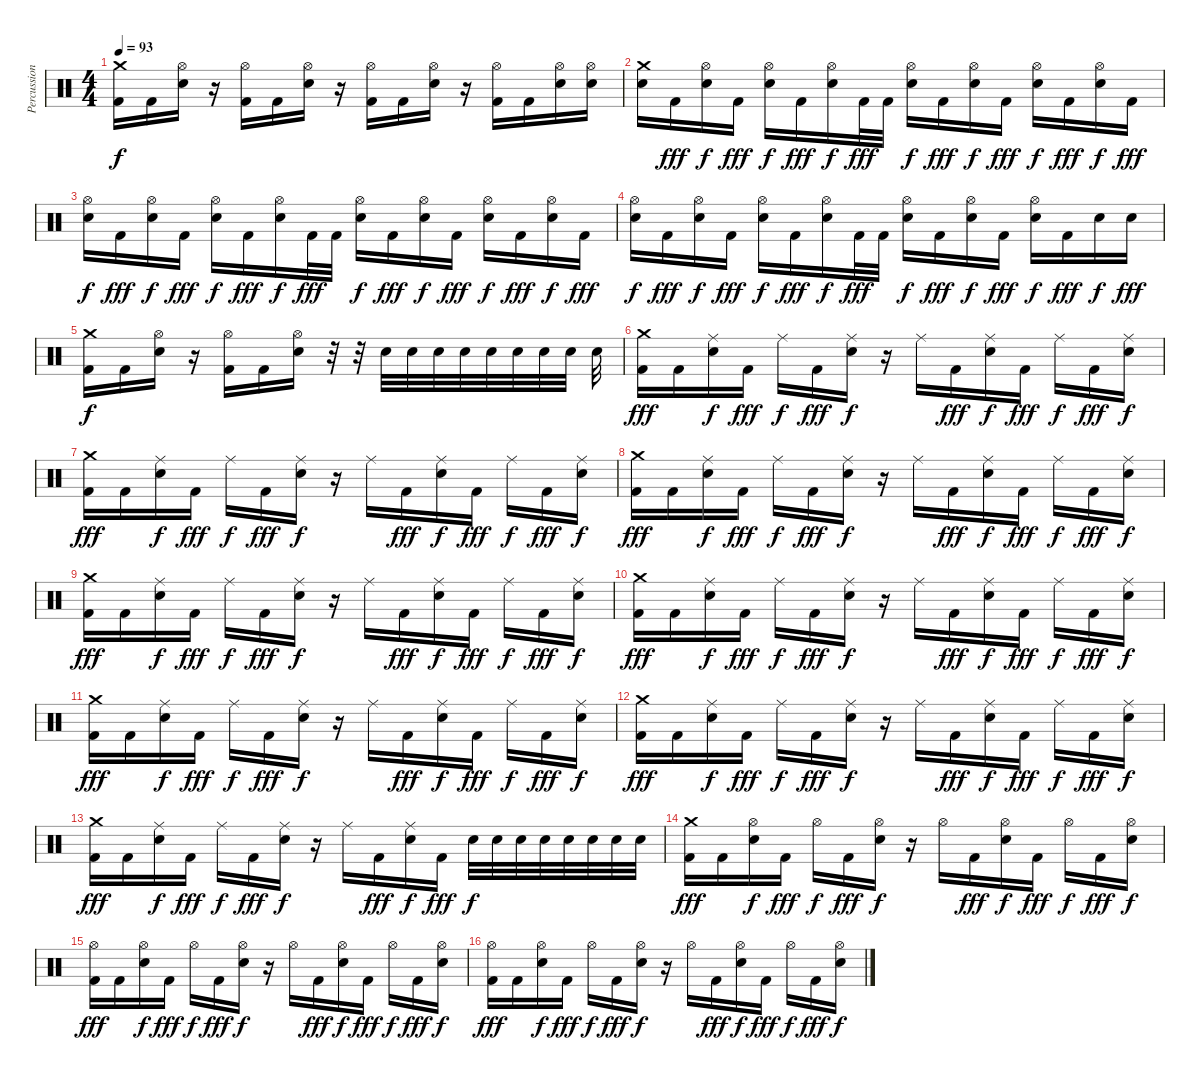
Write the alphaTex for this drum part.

\track ("Percussion" "Percussion") {instrument percussion}
\staff {score}
\articulation defaults
\ts (4 4)
\tempo 93
\clef neutral
\ks c
("Crash medium (hit)" "Kick (hit) 2").16{dy f} "Kick (hit) 2".16 ("Hi-Hat (open)" "Snare (hit) 2").16 r.16 ("Hi-Hat (open)" "Kick (hit) 2").16 "Kick (hit) 2".16 ("Hi-Hat (open)" "Snare (hit) 2").16 r.16 ("Hi-Hat (open)" "Kick (hit) 2").16 "Kick (hit) 2".16 ("Hi-Hat (open)" "Snare (hit) 2").16 r.16 ("Hi-Hat (open)" "Kick (hit) 2").16 "Kick (hit) 2".16 ("Hi-Hat (open)" "Snare (hit) 2").16 ("Hi-Hat (open)" "Snare (hit) 2").16 |
("Crash medium (hit)" "Snare (hit) 2").16 "Kick (hit) 2".16{dy fff} ("Hi-Hat (open)" "Snare (hit) 2").16{dy f} "Kick (hit) 2".16{dy fff} ("Hi-Hat (open)" "Snare (hit) 2").16{dy f} "Kick (hit) 2".16{dy fff} ("Hi-Hat (open)" "Snare (hit) 2").16{dy f} "Kick (hit) 2".32{dy fff} "Kick (hit) 2".32 ("Hi-Hat (open)" "Snare (hit) 2").16{dy f} "Kick (hit) 2".16{dy fff} ("Hi-Hat (open)" "Snare (hit) 2").16{dy f} "Kick (hit) 2".16{dy fff} ("Hi-Hat (open)" "Snare (hit) 2").16{dy f} "Kick (hit) 2".16{dy fff} ("Hi-Hat (open)" "Snare (hit) 2").16{dy f} "Kick (hit) 2".16{dy fff} |
("Hi-Hat (open)" "Snare (hit) 2").16{dy f} "Kick (hit) 2".16{dy fff} ("Hi-Hat (open)" "Snare (hit) 2").16{dy f} "Kick (hit) 2".16{dy fff} ("Hi-Hat (open)" "Snare (hit) 2").16{dy f} "Kick (hit) 2".16{dy fff} ("Hi-Hat (open)" "Snare (hit) 2").16{dy f} "Kick (hit) 2".32{dy fff} "Kick (hit) 2".32 ("Hi-Hat (open)" "Snare (hit) 2").16{dy f} "Kick (hit) 2".16{dy fff} ("Hi-Hat (open)" "Snare (hit) 2").16{dy f} "Kick (hit) 2".16{dy fff} ("Hi-Hat (open)" "Snare (hit) 2").16{dy f} "Kick (hit) 2".16{dy fff} ("Hi-Hat (open)" "Snare (hit) 2").16{dy f} "Kick (hit) 2".16{dy fff} |
("Hi-Hat (open)" "Snare (hit) 2").16{dy f} "Kick (hit) 2".16{dy fff} ("Hi-Hat (open)" "Snare (hit) 2").16{dy f} "Kick (hit) 2".16{dy fff} ("Hi-Hat (open)" "Snare (hit) 2").16{dy f} "Kick (hit) 2".16{dy fff} ("Hi-Hat (open)" "Snare (hit) 2").16{dy f} "Kick (hit) 2".32{dy fff} "Kick (hit) 2".32 ("Hi-Hat (open)" "Snare (hit) 2").16{dy f} "Kick (hit) 2".16{dy fff} ("Hi-Hat (open)" "Snare (hit) 2").16{dy f} "Kick (hit) 2".16{dy fff} ("Hi-Hat (open)" "Snare (hit) 2").16{dy f} "Kick (hit) 2".16{dy fff} "Snare (hit) 2".16{dy f} "Snare (hit) 2".16{dy fff} |
("Crash medium (hit)" "Kick (hit) 2").16{dy f} "Kick (hit) 2".16 ("Hi-Hat (open)" "Snare (hit) 2").16 r.16 ("Hi-Hat (open)" "Kick (hit) 2").16 "Kick (hit) 2".16 ("Hi-Hat (open)" "Snare (hit) 2").16 r.32 r.32 "Snare (hit) 2".32 "Snare (hit) 2".32 "Snare (hit) 2".32 "Snare (hit) 2".32 "Snare (hit) 2".32 "Snare (hit) 2".32 "Snare (hit) 2".32 "Snare (hit) 2".32 "Snare (hit) 2".32 |
("Crash medium (hit)" "Kick (hit) 2").16{dy fff} "Kick (hit) 2".16 ("Ride (middle)" "Snare (hit) 2").16{dy f} "Kick (hit) 2".16{dy fff} "Ride (middle)".16{dy f} "Kick (hit) 2".16{dy fff} ("Ride (middle)" "Snare (hit) 2").16{dy f} r.16 "Ride (middle)".16 "Kick (hit) 2".16{dy fff} ("Ride (middle)" "Snare (hit) 2").16{dy f} "Kick (hit) 2".16{dy fff} "Ride (middle)".16{dy f} "Kick (hit) 2".16{dy fff} ("Ride (middle)" "Snare (hit) 2").16{dy f} |
("Crash medium (hit)" "Kick (hit) 2").16{dy fff} "Kick (hit) 2".16 ("Ride (middle)" "Snare (hit) 2").16{dy f} "Kick (hit) 2".16{dy fff} "Ride (middle)".16{dy f} "Kick (hit) 2".16{dy fff} ("Ride (middle)" "Snare (hit) 2").16{dy f} r.16 "Ride (middle)".16 "Kick (hit) 2".16{dy fff} ("Ride (middle)" "Snare (hit) 2").16{dy f} "Kick (hit) 2".16{dy fff} "Ride (middle)".16{dy f} "Kick (hit) 2".16{dy fff} ("Ride (middle)" "Snare (hit) 2").16{dy f} |
("Crash medium (hit)" "Kick (hit) 2").16{dy fff} "Kick (hit) 2".16 ("Ride (middle)" "Snare (hit) 2").16{dy f} "Kick (hit) 2".16{dy fff} "Ride (middle)".16{dy f} "Kick (hit) 2".16{dy fff} ("Ride (middle)" "Snare (hit) 2").16{dy f} r.16 "Ride (middle)".16 "Kick (hit) 2".16{dy fff} ("Ride (middle)" "Snare (hit) 2").16{dy f} "Kick (hit) 2".16{dy fff} "Ride (middle)".16{dy f} "Kick (hit) 2".16{dy fff} ("Ride (middle)" "Snare (hit) 2").16{dy f} |
("Crash medium (hit)" "Kick (hit) 2").16{dy fff} "Kick (hit) 2".16 ("Ride (middle)" "Snare (hit) 2").16{dy f} "Kick (hit) 2".16{dy fff} "Ride (middle)".16{dy f} "Kick (hit) 2".16{dy fff} ("Ride (middle)" "Snare (hit) 2").16{dy f} r.16 "Ride (middle)".16 "Kick (hit) 2".16{dy fff} ("Ride (middle)" "Snare (hit) 2").16{dy f} "Kick (hit) 2".16{dy fff} "Ride (middle)".16{dy f} "Kick (hit) 2".16{dy fff} ("Ride (middle)" "Snare (hit) 2").16{dy f} |
("Crash medium (hit)" "Kick (hit) 2").16{dy fff} "Kick (hit) 2".16 ("Ride (middle)" "Snare (hit) 2").16{dy f} "Kick (hit) 2".16{dy fff} "Ride (middle)".16{dy f} "Kick (hit) 2".16{dy fff} ("Ride (middle)" "Snare (hit) 2").16{dy f} r.16 "Ride (middle)".16 "Kick (hit) 2".16{dy fff} ("Ride (middle)" "Snare (hit) 2").16{dy f} "Kick (hit) 2".16{dy fff} "Ride (middle)".16{dy f} "Kick (hit) 2".16{dy fff} ("Ride (middle)" "Snare (hit) 2").16{dy f} |
("Crash medium (hit)" "Kick (hit) 2").16{dy fff} "Kick (hit) 2".16 ("Ride (middle)" "Snare (hit) 2").16{dy f} "Kick (hit) 2".16{dy fff} "Ride (middle)".16{dy f} "Kick (hit) 2".16{dy fff} ("Ride (middle)" "Snare (hit) 2").16{dy f} r.16 "Ride (middle)".16 "Kick (hit) 2".16{dy fff} ("Ride (middle)" "Snare (hit) 2").16{dy f} "Kick (hit) 2".16{dy fff} "Ride (middle)".16{dy f} "Kick (hit) 2".16{dy fff} ("Ride (middle)" "Snare (hit) 2").16{dy f} |
("Crash medium (hit)" "Kick (hit) 2").16{dy fff} "Kick (hit) 2".16 ("Ride (middle)" "Snare (hit) 2").16{dy f} "Kick (hit) 2".16{dy fff} "Ride (middle)".16{dy f} "Kick (hit) 2".16{dy fff} ("Ride (middle)" "Snare (hit) 2").16{dy f} r.16 "Ride (middle)".16 "Kick (hit) 2".16{dy fff} ("Ride (middle)" "Snare (hit) 2").16{dy f} "Kick (hit) 2".16{dy fff} "Ride (middle)".16{dy f} "Kick (hit) 2".16{dy fff} ("Ride (middle)" "Snare (hit) 2").16{dy f} |
("Crash medium (hit)" "Kick (hit) 2").16{dy fff} "Kick (hit) 2".16 ("Ride (middle)" "Snare (hit) 2").16{dy f} "Kick (hit) 2".16{dy fff} "Ride (middle)".16{dy f} "Kick (hit) 2".16{dy fff} ("Ride (middle)" "Snare (hit) 2").16{dy f} r.16 "Ride (middle)".16 "Kick (hit) 2".16{dy fff} ("Ride (middle)" "Snare (hit) 2").16{dy f} "Kick (hit) 2".16{dy fff} "Snare (hit) 2".32{dy f} "Snare (hit) 2".32 "Snare (hit) 2".32 "Snare (hit) 2".32 "Snare (hit) 2".32 "Snare (hit) 2".32 "Snare (hit) 2".32 "Snare (hit) 2".32 |
("Crash medium (hit)" "Kick (hit) 2").16{dy fff} "Kick (hit) 2".16 ("Hi-Hat (open)" "Snare (hit) 2").16{dy f} "Kick (hit) 2".16{dy fff} "Hi-Hat (open)".16{dy f} "Kick (hit) 2".16{dy fff} ("Hi-Hat (open)" "Snare (hit) 2").16{dy f} r.16 "Hi-Hat (open)".16 "Kick (hit) 2".16{dy fff} ("Hi-Hat (open)" "Snare (hit) 2").16{dy f} "Kick (hit) 2".16{dy fff} "Hi-Hat (open)".16{dy f} "Kick (hit) 2".16{dy fff} ("Hi-Hat (open)" "Snare (hit) 2").16{dy f} |
("Hi-Hat (open)" "Kick (hit) 2").16{dy fff} "Kick (hit) 2".16 ("Hi-Hat (open)" "Snare (hit) 2").16{dy f} "Kick (hit) 2".16{dy fff} "Hi-Hat (open)".16{dy f} "Kick (hit) 2".16{dy fff} ("Hi-Hat (open)" "Snare (hit) 2").16{dy f} r.16 "Hi-Hat (open)".16 "Kick (hit) 2".16{dy fff} ("Hi-Hat (open)" "Snare (hit) 2").16{dy f} "Kick (hit) 2".16{dy fff} "Hi-Hat (open)".16{dy f} "Kick (hit) 2".16{dy fff} ("Hi-Hat (open)" "Snare (hit) 2").16{dy f} |
("Hi-Hat (open)" "Kick (hit) 2").16{dy fff} "Kick (hit) 2".16 ("Hi-Hat (open)" "Snare (hit) 2").16{dy f} "Kick (hit) 2".16{dy fff} "Hi-Hat (open)".16{dy f} "Kick (hit) 2".16{dy fff} ("Hi-Hat (open)" "Snare (hit) 2").16{dy f} r.16 "Hi-Hat (open)".16 "Kick (hit) 2".16{dy fff} ("Hi-Hat (open)" "Snare (hit) 2").16{dy f} "Kick (hit) 2".16{dy fff} "Hi-Hat (open)".16{dy f} "Kick (hit) 2".16{dy fff} ("Hi-Hat (open)" "Snare (hit) 2").16{dy f}
